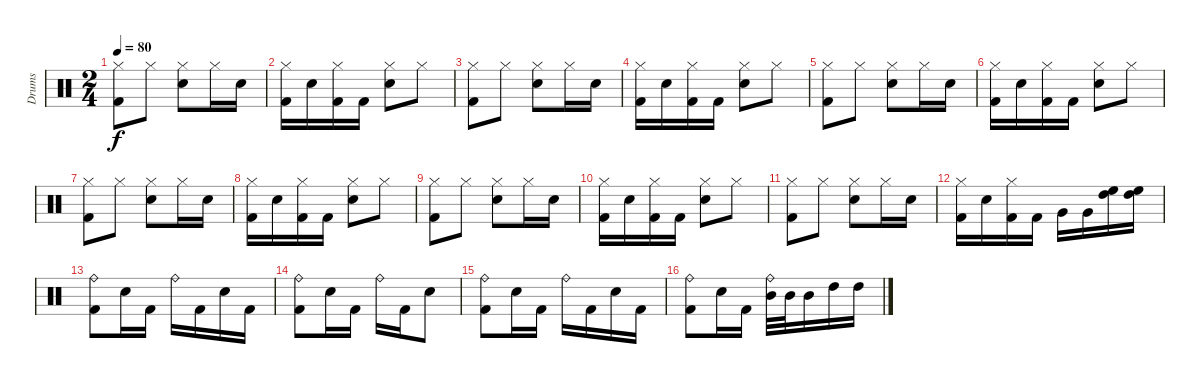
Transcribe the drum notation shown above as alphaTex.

\track ("Drums" "Drums") {instrument percussion}
\staff {score}
\articulation defaults
\ts (2 4)
\tempo 80
\clef neutral
\ks aminor
("Hi-Hat (closed)" "Kick (hit) 2").8{dy f} "Hi-Hat (closed)".8 ("Hi-Hat (closed)" "Electric Snare (hit)").8 "Hi-Hat (closed)".16 "Electric Snare (hit)".16 |
("Kick (hit) 2" "Hi-Hat (closed)").16 "Electric Snare (hit)".16 ("Kick (hit) 2" "Hi-Hat (closed)").16 "Kick (hit) 2".16 ("Electric Snare (hit)" "Hi-Hat (closed)").8 "Hi-Hat (closed)".8 |
("Hi-Hat (closed)" "Kick (hit) 2").8 "Hi-Hat (closed)".8 ("Hi-Hat (closed)" "Electric Snare (hit)").8 "Hi-Hat (closed)".16 "Electric Snare (hit)".16 |
("Kick (hit) 2" "Hi-Hat (closed)").16 "Electric Snare (hit)".16 ("Kick (hit) 2" "Hi-Hat (closed)").16 "Kick (hit) 2".16 ("Electric Snare (hit)" "Hi-Hat (closed)").8 "Hi-Hat (closed)".8 |
("Hi-Hat (closed)" "Kick (hit) 2").8 "Hi-Hat (closed)".8 ("Hi-Hat (closed)" "Electric Snare (hit)").8 "Hi-Hat (closed)".16 "Electric Snare (hit)".16 |
("Kick (hit) 2" "Hi-Hat (closed)").16 "Electric Snare (hit)".16 ("Kick (hit) 2" "Hi-Hat (closed)").16 "Kick (hit) 2".16 ("Electric Snare (hit)" "Hi-Hat (closed)").8 "Hi-Hat (closed)".8 |
("Hi-Hat (closed)" "Kick (hit) 2").8 "Hi-Hat (closed)".8 ("Hi-Hat (closed)" "Electric Snare (hit)").8 "Hi-Hat (closed)".16 "Electric Snare (hit)".16 |
("Kick (hit) 2" "Hi-Hat (closed)").16 "Electric Snare (hit)".16 ("Kick (hit) 2" "Hi-Hat (closed)").16 "Kick (hit) 2".16 ("Electric Snare (hit)" "Hi-Hat (closed)").8 "Hi-Hat (closed)".8 |
("Hi-Hat (closed)" "Kick (hit) 2").8 "Hi-Hat (closed)".8 ("Hi-Hat (closed)" "Electric Snare (hit)").8 "Hi-Hat (closed)".16 "Electric Snare (hit)".16 |
("Kick (hit) 2" "Hi-Hat (closed)").16 "Electric Snare (hit)".16 ("Kick (hit) 2" "Hi-Hat (closed)").16 "Kick (hit) 2".16 ("Electric Snare (hit)" "Hi-Hat (closed)").8 "Hi-Hat (closed)".8 |
("Hi-Hat (closed)" "Kick (hit) 2").8 "Hi-Hat (closed)".8 ("Hi-Hat (closed)" "Electric Snare (hit)").8 "Hi-Hat (closed)".16 "Electric Snare (hit)".16 |
("Kick (hit) 2" "Hi-Hat (closed)").16 "Electric Snare (hit)".16 ("Kick (hit) 2" "Hi-Hat (closed)").16 "Kick (hit) 2".16 "Very Low Tom (hit)".16 "Very Low Tom (hit)".16 ("High Floor Tom (hit)" "High Tom (hit)").16 ("High Floor Tom (hit)" "High Tom (hit)").16 |
("Kick (hit) 2" "Ride (bell)").8 "Electric Snare (hit)".16 "Kick (hit) 2".16 "Ride (bell)".16 "Kick (hit) 2".16 "Electric Snare (hit)".16 "Kick (hit) 2".16 |
("Kick (hit) 2" "Ride (bell)").8 "Electric Snare (hit)".16 "Kick (hit) 2".16 "Ride (bell)".16 "Kick (hit) 2".16 "Electric Snare (hit)".8 |
("Kick (hit) 2" "Ride (bell)").8 "Electric Snare (hit)".16 "Kick (hit) 2".16 "Ride (bell)".16 "Kick (hit) 2".16 "Electric Snare (hit)".16 "Kick (hit) 2".16 |
("Kick (hit) 2" "Ride (bell)").8 "Electric Snare (hit)".16 "Kick (hit) 2".16 ("Mid Tom (hit)" "Ride (bell)").32 "Mid Tom (hit)".32 "Mid Tom (hit)".16 "High Tom (hit)".16 "High Tom (hit)".16
